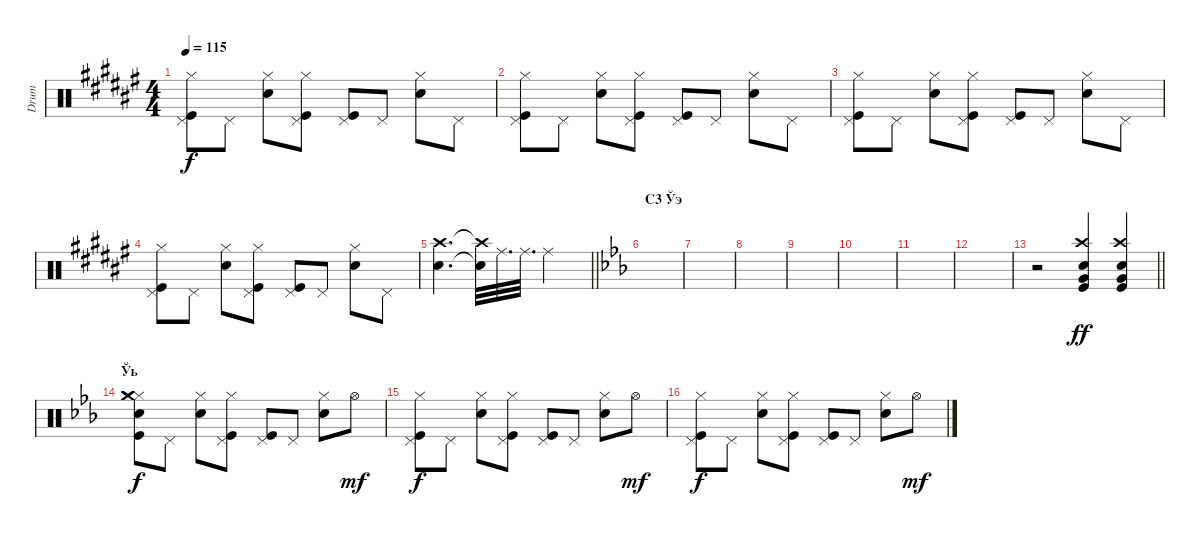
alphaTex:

\track ("Drum" "Drum") {instrument percussion}
\staff {score}
\articulation defaults
\ts (4 4)
\tempo 115
\clef neutral
\ks d#minor
("Hi-Hat (closed)" "Pedal Hi-Hat (hit)" "Kick (hit)").8{dy f} "Pedal Hi-Hat (hit)".8 ("Hi-Hat (closed)" "Snare (hit) 2").8 ("Hi-Hat (closed)" "Pedal Hi-Hat (hit)" "Kick (hit)").8 ("Kick (hit)" "Pedal Hi-Hat (hit)").8 "Pedal Hi-Hat (hit)".8 ("Hi-Hat (closed)" "Snare (hit) 2").8 "Pedal Hi-Hat (hit)".8 |
("Hi-Hat (closed)" "Pedal Hi-Hat (hit)" "Kick (hit)").8 "Pedal Hi-Hat (hit)".8 ("Hi-Hat (closed)" "Snare (hit) 2").8 ("Hi-Hat (closed)" "Pedal Hi-Hat (hit)" "Kick (hit)").8 ("Kick (hit)" "Pedal Hi-Hat (hit)").8 "Pedal Hi-Hat (hit)".8 ("Hi-Hat (closed)" "Snare (hit) 2").8 "Pedal Hi-Hat (hit)".8 |
("Hi-Hat (closed)" "Pedal Hi-Hat (hit)" "Kick (hit)").8 "Pedal Hi-Hat (hit)".8 ("Hi-Hat (closed)" "Snare (hit) 2").8 ("Hi-Hat (closed)" "Pedal Hi-Hat (hit)" "Kick (hit)").8 ("Kick (hit)" "Pedal Hi-Hat (hit)").8 "Pedal Hi-Hat (hit)".8 ("Hi-Hat (closed)" "Snare (hit) 2").8 "Pedal Hi-Hat (hit)".8 |
("Hi-Hat (closed)" "Pedal Hi-Hat (hit)" "Kick (hit)").8 "Pedal Hi-Hat (hit)".8 ("Hi-Hat (closed)" "Snare (hit) 2").8 ("Hi-Hat (closed)" "Pedal Hi-Hat (hit)" "Kick (hit)").8 ("Kick (hit)" "Pedal Hi-Hat (hit)").8 "Pedal Hi-Hat (hit)".8 ("Hi-Hat (closed)" "Snare (hit) 2").8 "Pedal Hi-Hat (hit)".8 |
\barLineRight lightlight
("Crash high (hit)" "Electric Snare (hit)").4{d} ("Crash high (hit)"{t} "Electric Snare (hit)"{t}).32 "Ride (middle)".32{d} "Ride (middle)".32{d} "Ride (middle)".2 |
\section ("" "C3 Ўэ")
\ks eb
|
|
|
|
|
|
|
\barLineRight lightlight
r.2 ("Electric Snare (hit)" "Kick (hit)" "Crash high (hit)" "Very Low Tom (hit)").4{dy ff} ("Electric Snare (hit)" "Kick (hit)" "Crash high (hit)" "Very Low Tom (hit)").4 |
\section ("" "Ўь")
("Hi-Hat (closed)" "Kick (hit)" "Crash medium (hit)" "Crash medium (hit)" "Snare (hit) 2").8{dy f} "Pedal Hi-Hat (hit)".8 ("Hi-Hat (closed)" "Snare (hit) 2").8 ("Hi-Hat (closed)" "Pedal Hi-Hat (hit)" "Kick (hit)").8 ("Kick (hit)" "Pedal Hi-Hat (hit)").8 "Pedal Hi-Hat (hit)".8 ("Hi-Hat (closed)" "Snare (hit) 2").8 "Hi-Hat (open)".8{dy mf} |
("Hi-Hat (closed)" "Pedal Hi-Hat (hit)" "Kick (hit)").8{dy f} "Pedal Hi-Hat (hit)".8 ("Hi-Hat (closed)" "Snare (hit) 2").8 ("Hi-Hat (closed)" "Pedal Hi-Hat (hit)" "Kick (hit)").8 ("Kick (hit)" "Pedal Hi-Hat (hit)").8 "Pedal Hi-Hat (hit)".8 ("Hi-Hat (closed)" "Snare (hit) 2").8 "Hi-Hat (open)".8{dy mf} |
("Hi-Hat (closed)" "Pedal Hi-Hat (hit)" "Kick (hit)").8{dy f} "Pedal Hi-Hat (hit)".8 ("Hi-Hat (closed)" "Snare (hit) 2").8 ("Hi-Hat (closed)" "Pedal Hi-Hat (hit)" "Kick (hit)").8 ("Kick (hit)" "Pedal Hi-Hat (hit)").8 "Pedal Hi-Hat (hit)".8 ("Hi-Hat (closed)" "Snare (hit) 2").8 "Hi-Hat (open)".8{dy mf}
